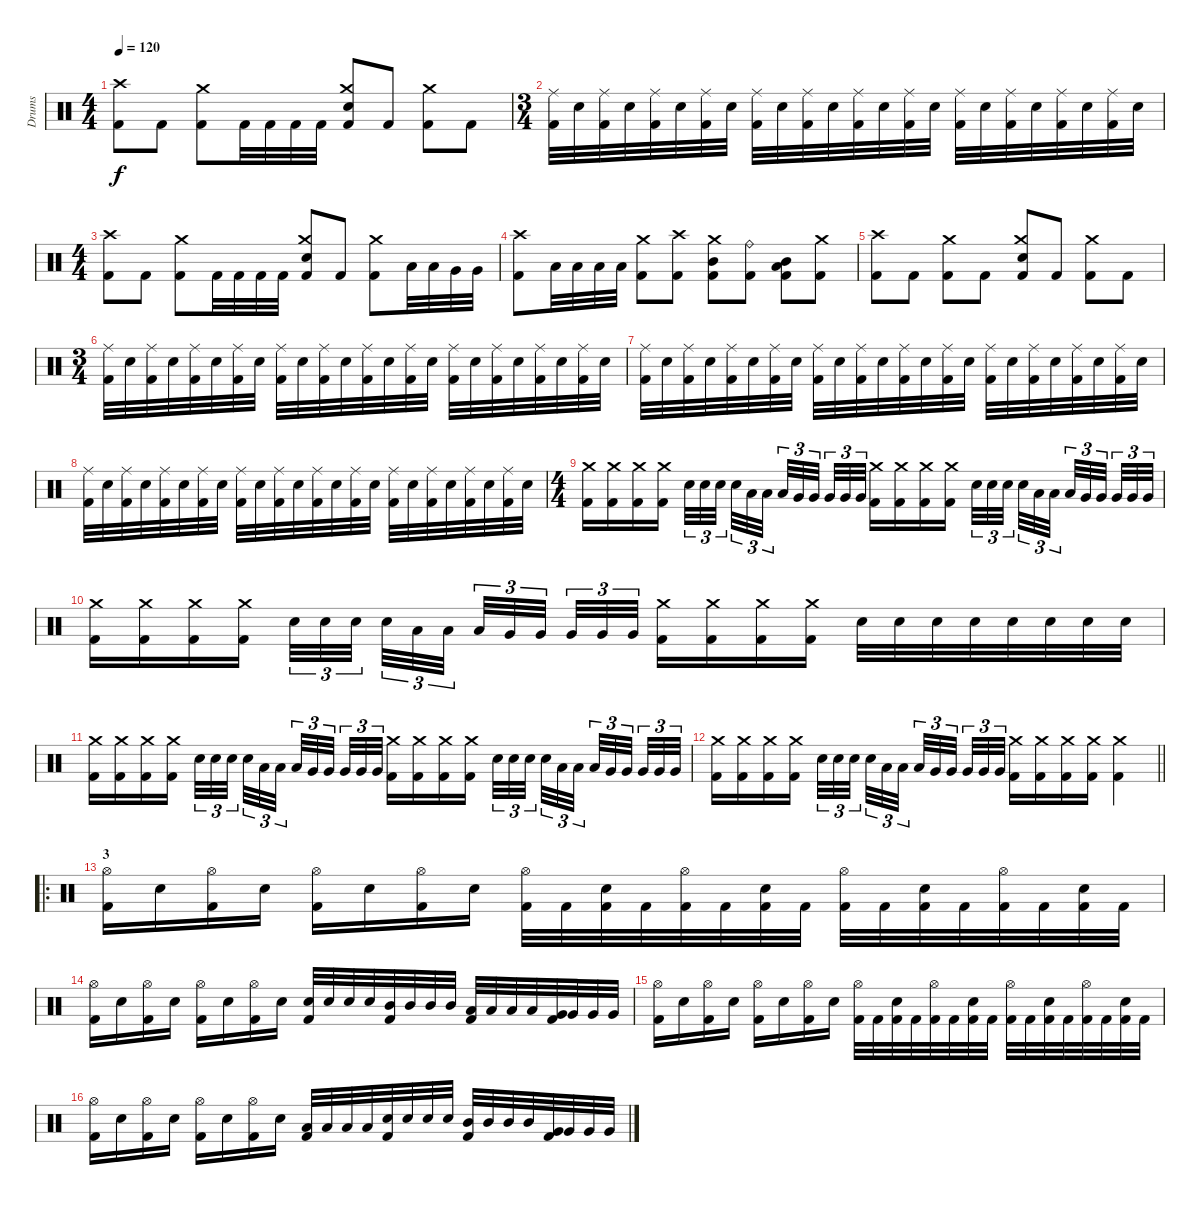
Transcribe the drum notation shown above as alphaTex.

\track ("Drums" "Drums") {instrument percussion}
\staff {score}
\articulation defaults
\ts (4 4)
\tempo 120
\clef neutral
\ks c
("Crash high (hit)" "Kick (hit) 2").8{dy f} "Kick (hit) 2".8 ("Crash medium (hit)" "Kick (hit) 2").8 "Kick (hit) 2".32 "Kick (hit) 2".32 "Kick (hit) 2".32 "Kick (hit) 2".32 ("Crash medium (hit)" "Electric Snare (hit)" "Kick (hit) 2").8 "Kick (hit) 2".8 ("Crash medium (hit)" "Kick (hit) 2").8 "Kick (hit) 2".8 |
\ts (3 4)
("Ride (middle)" "Kick (hit) 2").32 "Electric Snare (hit)".32 ("Ride (middle)" "Kick (hit) 2").32 "Electric Snare (hit)".32 ("Ride (middle)" "Kick (hit) 2").32 "Electric Snare (hit)".32 ("Ride (middle)" "Kick (hit) 2").32 "Electric Snare (hit)".32 ("Ride (middle)" "Kick (hit) 2").32 "Electric Snare (hit)".32 ("Ride (middle)" "Kick (hit) 2").32 "Electric Snare (hit)".32 ("Ride (middle)" "Kick (hit) 2").32 "Electric Snare (hit)".32 ("Ride (middle)" "Kick (hit) 2").32 "Electric Snare (hit)".32 ("Ride (middle)" "Kick (hit) 2").32 "Electric Snare (hit)".32 ("Ride (middle)" "Kick (hit) 2").32 "Electric Snare (hit)".32 ("Ride (middle)" "Kick (hit) 2").32 "Electric Snare (hit)".32 ("Ride (middle)" "Kick (hit) 2").32 "Electric Snare (hit)".32 |
\ts (4 4)
("Crash high (hit)" "Kick (hit) 2").8 "Kick (hit) 2".8 ("Crash medium (hit)" "Kick (hit) 2").8 "Kick (hit) 2".32 "Kick (hit) 2".32 "Kick (hit) 2".32 "Kick (hit) 2".32 ("Crash medium (hit)" "Electric Snare (hit)" "Kick (hit) 2").8 "Kick (hit) 2".8 ("Crash medium (hit)" "Kick (hit) 2").8 "Low Tom (hit)".32 "Low Tom (hit)".32 "Very Low Tom (hit)".32 "Very Low Tom (hit)".32 |
("Crash high (hit)" "Kick (hit) 2").8 "Low Tom (hit)".32 "Low Tom (hit)".32 "Low Tom (hit)".32 "Low Tom (hit)".32 ("Crash medium (hit)" "Kick (hit) 2").8 ("Crash high (hit)" "Kick (hit) 2").8 ("Crash medium (hit)" "Mid Tom (hit)" "Kick (hit) 2").8 ("Ride (bell)" "Kick (hit) 2").8 ("Low Tom (hit)" "Mid Tom (hit)" "Kick (hit) 2").8 ("Crash medium (hit)" "Kick (hit) 2").8 |
("Crash high (hit)" "Kick (hit) 2").8 "Kick (hit) 2".8 ("Crash medium (hit)" "Kick (hit) 2").8 "Kick (hit) 2".8 ("Crash medium (hit)" "Electric Snare (hit)" "Kick (hit) 2").8 "Kick (hit) 2".8 ("Crash medium (hit)" "Kick (hit) 2").8 "Kick (hit) 2".8 |
\ts (3 4)
("Ride (middle)" "Kick (hit) 2").32 "Electric Snare (hit)".32 ("Ride (middle)" "Kick (hit) 2").32 "Electric Snare (hit)".32 ("Ride (middle)" "Kick (hit) 2").32 "Electric Snare (hit)".32 ("Ride (middle)" "Kick (hit) 2").32 "Electric Snare (hit)".32 ("Ride (middle)" "Kick (hit) 2").32 "Electric Snare (hit)".32 ("Ride (middle)" "Kick (hit) 2").32 "Electric Snare (hit)".32 ("Ride (middle)" "Kick (hit) 2").32 "Electric Snare (hit)".32 ("Ride (middle)" "Kick (hit) 2").32 "Electric Snare (hit)".32 ("Ride (middle)" "Kick (hit) 2").32 "Electric Snare (hit)".32 ("Ride (middle)" "Kick (hit) 2").32 "Electric Snare (hit)".32 ("Ride (middle)" "Kick (hit) 2").32 "Electric Snare (hit)".32 ("Ride (middle)" "Kick (hit) 2").32 "Electric Snare (hit)".32 |
("Ride (middle)" "Kick (hit) 2").32 "Electric Snare (hit)".32 ("Ride (middle)" "Kick (hit) 2").32 "Electric Snare (hit)".32 ("Ride (middle)" "Kick (hit) 2").32 "Electric Snare (hit)".32 ("Ride (middle)" "Kick (hit) 2").32 "Electric Snare (hit)".32 ("Ride (middle)" "Kick (hit) 2").32 "Electric Snare (hit)".32 ("Ride (middle)" "Kick (hit) 2").32 "Electric Snare (hit)".32 ("Ride (middle)" "Kick (hit) 2").32 "Electric Snare (hit)".32 ("Ride (middle)" "Kick (hit) 2").32 "Electric Snare (hit)".32 ("Ride (middle)" "Kick (hit) 2").32 "Electric Snare (hit)".32 ("Ride (middle)" "Kick (hit) 2").32 "Electric Snare (hit)".32 ("Ride (middle)" "Kick (hit) 2").32 "Electric Snare (hit)".32 ("Ride (middle)" "Kick (hit) 2").32 "Electric Snare (hit)".32 |
("Ride (middle)" "Kick (hit) 2").32 "Electric Snare (hit)".32 ("Ride (middle)" "Kick (hit) 2").32 "Electric Snare (hit)".32 ("Ride (middle)" "Kick (hit) 2").32 "Electric Snare (hit)".32 ("Ride (middle)" "Kick (hit) 2").32 "Electric Snare (hit)".32 ("Ride (middle)" "Kick (hit) 2").32 "Electric Snare (hit)".32 ("Ride (middle)" "Kick (hit) 2").32 "Electric Snare (hit)".32 ("Ride (middle)" "Kick (hit) 2").32 "Electric Snare (hit)".32 ("Ride (middle)" "Kick (hit) 2").32 "Electric Snare (hit)".32 ("Ride (middle)" "Kick (hit) 2").32 "Electric Snare (hit)".32 ("Ride (middle)" "Kick (hit) 2").32 "Electric Snare (hit)".32 ("Ride (middle)" "Kick (hit) 2").32 "Electric Snare (hit)".32 ("Ride (middle)" "Kick (hit) 2").32 "Electric Snare (hit)".32 |
\ts (4 4)
("Crash medium (hit)" "Kick (hit) 2").16 ("Crash medium (hit)" "Kick (hit) 2").16 ("Crash medium (hit)" "Kick (hit) 2").16 ("Crash medium (hit)" "Kick (hit) 2").16 "Electric Snare (hit)".32{tu (3 2)} "Electric Snare (hit)".32{tu (3 2)} "Electric Snare (hit)".32{tu (3 2) beam splitsecondary} "Electric Snare (hit)".32{tu (3 2)} "Low Tom (hit)".32{tu (3 2)} "Low Tom (hit)".32{tu (3 2) beam splitsecondary} "Low Tom (hit)".32{tu (3 2)} "Very Low Tom (hit)".32{tu (3 2)} "Very Low Tom (hit)".32{tu (3 2) beam splitsecondary} "Very Low Tom (hit)".32{tu (3 2)} "Very Low Tom (hit)".32{tu (3 2)} "Very Low Tom (hit)".32{tu (3 2)} ("Crash medium (hit)" "Kick (hit) 2").16 ("Crash medium (hit)" "Kick (hit) 2").16 ("Crash medium (hit)" "Kick (hit) 2").16 ("Crash medium (hit)" "Kick (hit) 2").16 "Electric Snare (hit)".32{tu (3 2)} "Electric Snare (hit)".32{tu (3 2)} "Electric Snare (hit)".32{tu (3 2) beam splitsecondary} "Electric Snare (hit)".32{tu (3 2)} "Low Tom (hit)".32{tu (3 2)} "Low Tom (hit)".32{tu (3 2) beam splitsecondary} "Low Tom (hit)".32{tu (3 2)} "Very Low Tom (hit)".32{tu (3 2)} "Very Low Tom (hit)".32{tu (3 2) beam splitsecondary} "Very Low Tom (hit)".32{tu (3 2)} "Very Low Tom (hit)".32{tu (3 2)} "Very Low Tom (hit)".32{tu (3 2)} |
("Crash medium (hit)" "Kick (hit) 2").16 ("Crash medium (hit)" "Kick (hit) 2").16 ("Crash medium (hit)" "Kick (hit) 2").16 ("Crash medium (hit)" "Kick (hit) 2").16 "Electric Snare (hit)".32{tu (3 2)} "Electric Snare (hit)".32{tu (3 2)} "Electric Snare (hit)".32{tu (3 2) beam splitsecondary} "Electric Snare (hit)".32{tu (3 2)} "Low Tom (hit)".32{tu (3 2)} "Low Tom (hit)".32{tu (3 2) beam splitsecondary} "Low Tom (hit)".32{tu (3 2)} "Very Low Tom (hit)".32{tu (3 2)} "Very Low Tom (hit)".32{tu (3 2) beam splitsecondary} "Very Low Tom (hit)".32{tu (3 2)} "Very Low Tom (hit)".32{tu (3 2)} "Very Low Tom (hit)".32{tu (3 2)} ("Crash medium (hit)" "Kick (hit) 2").16 ("Crash medium (hit)" "Kick (hit) 2").16 ("Crash medium (hit)" "Kick (hit) 2").16 ("Crash medium (hit)" "Kick (hit) 2").16 "Electric Snare (hit)".32 "Electric Snare (hit)".32 "Electric Snare (hit)".32 "Electric Snare (hit)".32 "Electric Snare (hit)".32 "Electric Snare (hit)".32 "Electric Snare (hit)".32 "Electric Snare (hit)".32 |
("Crash medium (hit)" "Kick (hit) 2").16 ("Crash medium (hit)" "Kick (hit) 2").16 ("Crash medium (hit)" "Kick (hit) 2").16 ("Crash medium (hit)" "Kick (hit) 2").16 "Electric Snare (hit)".32{tu (3 2)} "Electric Snare (hit)".32{tu (3 2)} "Electric Snare (hit)".32{tu (3 2) beam splitsecondary} "Electric Snare (hit)".32{tu (3 2)} "Low Tom (hit)".32{tu (3 2)} "Low Tom (hit)".32{tu (3 2) beam splitsecondary} "Low Tom (hit)".32{tu (3 2)} "Very Low Tom (hit)".32{tu (3 2)} "Very Low Tom (hit)".32{tu (3 2) beam splitsecondary} "Very Low Tom (hit)".32{tu (3 2)} "Very Low Tom (hit)".32{tu (3 2)} "Very Low Tom (hit)".32{tu (3 2)} ("Crash medium (hit)" "Kick (hit) 2").16 ("Crash medium (hit)" "Kick (hit) 2").16 ("Crash medium (hit)" "Kick (hit) 2").16 ("Crash medium (hit)" "Kick (hit) 2").16 "Electric Snare (hit)".32{tu (3 2)} "Electric Snare (hit)".32{tu (3 2)} "Electric Snare (hit)".32{tu (3 2) beam splitsecondary} "Electric Snare (hit)".32{tu (3 2)} "Low Tom (hit)".32{tu (3 2)} "Low Tom (hit)".32{tu (3 2) beam splitsecondary} "Low Tom (hit)".32{tu (3 2)} "Very Low Tom (hit)".32{tu (3 2)} "Very Low Tom (hit)".32{tu (3 2) beam splitsecondary} "Very Low Tom (hit)".32{tu (3 2)} "Very Low Tom (hit)".32{tu (3 2)} "Very Low Tom (hit)".32{tu (3 2)} |
\barLineRight lightlight
("Crash medium (hit)" "Kick (hit) 2").16 ("Crash medium (hit)" "Kick (hit) 2").16 ("Crash medium (hit)" "Kick (hit) 2").16 ("Crash medium (hit)" "Kick (hit) 2").16 "Electric Snare (hit)".32{tu (3 2)} "Electric Snare (hit)".32{tu (3 2)} "Electric Snare (hit)".32{tu (3 2) beam splitsecondary} "Electric Snare (hit)".32{tu (3 2)} "Low Tom (hit)".32{tu (3 2)} "Low Tom (hit)".32{tu (3 2) beam splitsecondary} "Low Tom (hit)".32{tu (3 2)} "Very Low Tom (hit)".32{tu (3 2)} "Very Low Tom (hit)".32{tu (3 2) beam splitsecondary} "Very Low Tom (hit)".32{tu (3 2)} "Very Low Tom (hit)".32{tu (3 2)} "Very Low Tom (hit)".32{tu (3 2)} ("Crash medium (hit)" "Kick (hit) 2").16 ("Crash medium (hit)" "Kick (hit) 2").16 ("Crash medium (hit)" "Kick (hit) 2").16 ("Crash medium (hit)" "Kick (hit) 2").16 ("Crash medium (hit)" "Kick (hit) 2").4 |
\ro
\section ("" "3")
("Hi-Hat (open)" "Kick (hit) 2").16 "Electric Snare (hit)".16 ("Hi-Hat (open)" "Kick (hit) 2").16 "Electric Snare (hit)".16 ("Hi-Hat (open)" "Kick (hit) 2").16 "Electric Snare (hit)".16 ("Hi-Hat (open)" "Kick (hit) 2").16 "Electric Snare (hit)".16 ("Hi-Hat (open)" "Kick (hit) 2").32 "Kick (hit) 2".32 ("Electric Snare (hit)" "Kick (hit) 2").32 "Kick (hit) 2".32 ("Hi-Hat (open)" "Kick (hit) 2").32 "Kick (hit) 2".32 ("Electric Snare (hit)" "Kick (hit) 2").32 "Kick (hit) 2".32 ("Hi-Hat (open)" "Kick (hit) 2").32 "Kick (hit) 2".32 ("Electric Snare (hit)" "Kick (hit) 2").32 "Kick (hit) 2".32 ("Hi-Hat (open)" "Kick (hit) 2").32 "Kick (hit) 2".32 ("Electric Snare (hit)" "Kick (hit) 2").32 "Kick (hit) 2".32 |
("Hi-Hat (open)" "Kick (hit) 2").16 "Electric Snare (hit)".16 ("Hi-Hat (open)" "Kick (hit) 2").16 "Electric Snare (hit)".16 ("Hi-Hat (open)" "Kick (hit) 2").16 "Electric Snare (hit)".16 ("Hi-Hat (open)" "Kick (hit) 2").16 "Electric Snare (hit)".16 ("Electric Snare (hit)" "Kick (hit) 2").32 "Electric Snare (hit)".32 "Electric Snare (hit)".32 "Electric Snare (hit)".32 ("Mid Tom (hit)" "Kick (hit) 2").32 "Mid Tom (hit)".32 "Mid Tom (hit)".32 "Mid Tom (hit)".32 ("Low Tom (hit)" "Kick (hit) 2").32 "Low Tom (hit)".32 "Low Tom (hit)".32 "Low Tom (hit)".32 ("Very Low Tom (hit)" "Kick (hit) 2").32 "Very Low Tom (hit)".32 "Very Low Tom (hit)".32 "Very Low Tom (hit)".32 |
("Hi-Hat (open)" "Kick (hit) 2").16 "Electric Snare (hit)".16 ("Hi-Hat (open)" "Kick (hit) 2").16 "Electric Snare (hit)".16 ("Hi-Hat (open)" "Kick (hit) 2").16 "Electric Snare (hit)".16 ("Hi-Hat (open)" "Kick (hit) 2").16 "Electric Snare (hit)".16 ("Hi-Hat (open)" "Kick (hit) 2").32 "Kick (hit) 2".32 ("Electric Snare (hit)" "Kick (hit) 2").32 "Kick (hit) 2".32 ("Hi-Hat (open)" "Kick (hit) 2").32 "Kick (hit) 2".32 ("Electric Snare (hit)" "Kick (hit) 2").32 "Kick (hit) 2".32 ("Hi-Hat (open)" "Kick (hit) 2").32 "Kick (hit) 2".32 ("Electric Snare (hit)" "Kick (hit) 2").32 "Kick (hit) 2".32 ("Hi-Hat (open)" "Kick (hit) 2").32 "Kick (hit) 2".32 ("Electric Snare (hit)" "Kick (hit) 2").32 "Kick (hit) 2".32 |
("Hi-Hat (open)" "Kick (hit) 2").16 "Electric Snare (hit)".16 ("Hi-Hat (open)" "Kick (hit) 2").16 "Electric Snare (hit)".16 ("Hi-Hat (open)" "Kick (hit) 2").16 "Electric Snare (hit)".16 ("Hi-Hat (open)" "Kick (hit) 2").16 "Electric Snare (hit)".16 ("Low Tom (hit)" "Kick (hit) 2").32 "Low Tom (hit)".32 "Low Tom (hit)".32 "Low Tom (hit)".32 ("Electric Snare (hit)" "Kick (hit) 2").32 "Electric Snare (hit)".32 "Electric Snare (hit)".32 "Electric Snare (hit)".32 ("Mid Tom (hit)" "Kick (hit) 2").32 "Mid Tom (hit)".32 "Mid Tom (hit)".32 "Mid Tom (hit)".32 ("Very Low Tom (hit)" "Kick (hit) 2").32 "Very Low Tom (hit)".32 "Very Low Tom (hit)".32 "Very Low Tom (hit)".32
